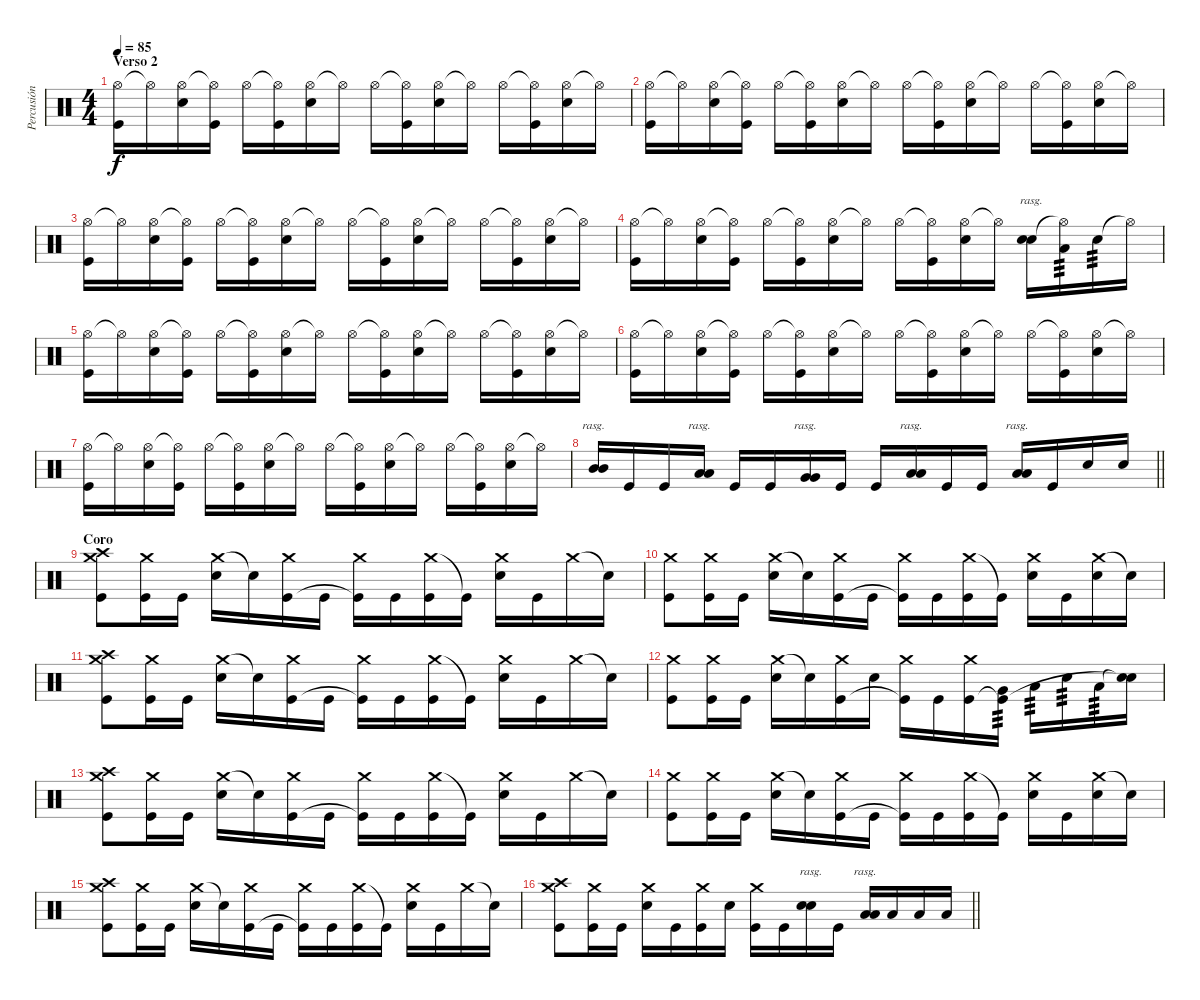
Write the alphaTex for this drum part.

\track ("Percusión" "Percusión") {instrument percussion}
\staff {score}
\articulation defaults
\ts (4 4)
\section ("" "Verso 2")
\tempo 85
\clef neutral
\ks c
("Hi-Hat (open)" "Kick (hit)").16{dy f} "Hi-Hat (open)"{t}.16 ("Hi-Hat (open)" "Electric Snare (hit)").16 ("Hi-Hat (open)"{t} "Kick (hit)").16 "Hi-Hat (open)".16 ("Hi-Hat (open)"{t} "Kick (hit)").16 ("Hi-Hat (open)" "Electric Snare (hit)").16 "Hi-Hat (open)"{t}.16 "Hi-Hat (open)".16 ("Hi-Hat (open)"{t} "Kick (hit)").16 ("Hi-Hat (open)" "Electric Snare (hit)").16 "Hi-Hat (open)"{t}.16 "Hi-Hat (open)".16 ("Hi-Hat (open)"{t} "Kick (hit)").16 ("Hi-Hat (open)" "Electric Snare (hit)").16 "Hi-Hat (open)"{t}.16 |
("Hi-Hat (open)" "Kick (hit)").16 "Hi-Hat (open)"{t}.16 ("Hi-Hat (open)" "Electric Snare (hit)").16 ("Hi-Hat (open)"{t} "Kick (hit)").16 "Hi-Hat (open)".16 ("Hi-Hat (open)"{t} "Kick (hit)").16 ("Hi-Hat (open)" "Electric Snare (hit)").16 "Hi-Hat (open)"{t}.16 "Hi-Hat (open)".16 ("Hi-Hat (open)"{t} "Kick (hit)").16 ("Hi-Hat (open)" "Electric Snare (hit)").16 "Hi-Hat (open)"{t}.16 "Hi-Hat (open)".16 ("Hi-Hat (open)"{t} "Kick (hit)").16 ("Hi-Hat (open)" "Electric Snare (hit)").16 "Hi-Hat (open)"{t}.16 |
("Hi-Hat (open)" "Kick (hit)").16 "Hi-Hat (open)"{t}.16 ("Hi-Hat (open)" "Electric Snare (hit)").16 ("Hi-Hat (open)"{t} "Kick (hit)").16 "Hi-Hat (open)".16 ("Hi-Hat (open)"{t} "Kick (hit)").16 ("Hi-Hat (open)" "Electric Snare (hit)").16 "Hi-Hat (open)"{t}.16 "Hi-Hat (open)".16 ("Hi-Hat (open)"{t} "Kick (hit)").16 ("Hi-Hat (open)" "Electric Snare (hit)").16 "Hi-Hat (open)"{t}.16 "Hi-Hat (open)".16 ("Hi-Hat (open)"{t} "Kick (hit)").16 ("Hi-Hat (open)" "Electric Snare (hit)").16 "Hi-Hat (open)"{t}.16 |
("Hi-Hat (open)" "Kick (hit)").16 "Hi-Hat (open)"{t}.16 ("Hi-Hat (open)" "Electric Snare (hit)").16 ("Hi-Hat (open)"{t} "Kick (hit)").16 "Hi-Hat (open)".16 ("Hi-Hat (open)"{t} "Kick (hit)").16 ("Hi-Hat (open)" "Electric Snare (hit)").16 "Hi-Hat (open)"{t}.16 "Hi-Hat (open)".16 ("Hi-Hat (open)"{t} "Kick (hit)").16 ("Hi-Hat (open)" "Electric Snare (hit)").16 "Hi-Hat (open)"{t}.16 ("Electric Snare (hit)" "Electric Snare (hit)").16{bd 120 rasg ii} ("Hi-Hat (open)"{t} "Low Floor Tom (hit)").16{tp 3} "Electric Snare (hit)".16{tp 3} "Hi-Hat (open)"{t}.16 |
("Hi-Hat (open)" "Kick (hit)").16 "Hi-Hat (open)"{t}.16 ("Hi-Hat (open)" "Electric Snare (hit)").16 ("Hi-Hat (open)"{t} "Kick (hit)").16 "Hi-Hat (open)".16 ("Hi-Hat (open)"{t} "Kick (hit)").16 ("Hi-Hat (open)" "Electric Snare (hit)").16 "Hi-Hat (open)"{t}.16 "Hi-Hat (open)".16 ("Hi-Hat (open)"{t} "Kick (hit)").16 ("Hi-Hat (open)" "Electric Snare (hit)").16 "Hi-Hat (open)"{t}.16 "Hi-Hat (open)".16 ("Hi-Hat (open)"{t} "Kick (hit)").16 ("Hi-Hat (open)" "Electric Snare (hit)").16 "Hi-Hat (open)"{t}.16 |
("Hi-Hat (open)" "Kick (hit)").16 "Hi-Hat (open)"{t}.16 ("Hi-Hat (open)" "Electric Snare (hit)").16 ("Hi-Hat (open)"{t} "Kick (hit)").16 "Hi-Hat (open)".16 ("Hi-Hat (open)"{t} "Kick (hit)").16 ("Hi-Hat (open)" "Electric Snare (hit)").16 "Hi-Hat (open)"{t}.16 "Hi-Hat (open)".16 ("Hi-Hat (open)"{t} "Kick (hit)").16 ("Hi-Hat (open)" "Electric Snare (hit)").16 "Hi-Hat (open)"{t}.16 "Hi-Hat (open)".16 ("Hi-Hat (open)"{t} "Kick (hit)").16 ("Hi-Hat (open)" "Electric Snare (hit)").16 "Hi-Hat (open)"{t}.16 |
("Hi-Hat (open)" "Kick (hit)").16 "Hi-Hat (open)"{t}.16 ("Hi-Hat (open)" "Electric Snare (hit)").16 ("Hi-Hat (open)"{t} "Kick (hit)").16 "Hi-Hat (open)".16 ("Hi-Hat (open)"{t} "Kick (hit)").16 ("Hi-Hat (open)" "Electric Snare (hit)").16 "Hi-Hat (open)"{t}.16 "Hi-Hat (open)".16 ("Hi-Hat (open)"{t} "Kick (hit)").16 ("Hi-Hat (open)" "Electric Snare (hit)").16 "Hi-Hat (open)"{t}.16 "Hi-Hat (open)".16 ("Hi-Hat (open)"{t} "Kick (hit)").16 ("Hi-Hat (open)" "Electric Snare (hit)").16 "Hi-Hat (open)"{t}.16 |
\barLineRight lightlight
("Mid Tom (hit)" "Mid Tom (hit)").16{bd 240 rasg ii} "Kick (hit)".16 "Kick (hit)".16 ("Low Tom (hit)" "Low Tom (hit)").16{bd 120 rasg ii} "Kick (hit)".16 "Kick (hit)".16 ("Very Low Tom (hit)" "Very Low Tom (hit)").16{bd 120 rasg ii} "Kick (hit)".16 "Kick (hit)".16 ("Low Floor Tom (hit)" "Low Floor Tom (hit)").16{bd 120 rasg ii} "Kick (hit)".16 "Kick (hit)".16 ("Low Floor Tom (hit)" "Low Floor Tom (hit)").16{bd 120 rasg ii} "Kick (hit)".16 "Electric Snare (hit)".16 "Electric Snare (hit)".16 |
\section ("" "Coro")
("Crash medium (hit)" "Crash high (hit)" "Kick (hit)").8 ("Crash medium (hit)" "Kick (hit)").16 "Kick (hit)".16 ("Crash medium (hit)" "Electric Snare (hit)").16 "Snare (hit)"{t}.16 ("Crash medium (hit)" "Kick (hit)").16 "Kick (hit)".16 ("Crash medium (hit)" "Kick (hit)"{t}).16 "Kick (hit)".16 ("Crash medium (hit)" "Kick (hit)").16 "Kick (hit)"{t}.16 ("Crash medium (hit)" "Electric Snare (hit)").16 "Kick (hit)".16 "Crash medium (hit)".16 "Snare (hit)"{t}.16 |
("Crash medium (hit)" "Kick (hit)").8 ("Crash medium (hit)" "Kick (hit)").16 "Kick (hit)".16 ("Crash medium (hit)" "Electric Snare (hit)").16 "Snare (hit)"{t}.16 ("Crash medium (hit)" "Kick (hit)").16 "Kick (hit)".16 ("Crash medium (hit)" "Kick (hit)"{t}).16 "Kick (hit)".16 ("Crash medium (hit)" "Kick (hit)").16 "Kick (hit)"{t}.16 ("Crash medium (hit)" "Electric Snare (hit)").16 "Kick (hit)".16 ("Crash medium (hit)" "Electric Snare (hit)").16 "Snare (hit)"{t}.16 |
("Crash medium (hit)" "Crash high (hit)" "Kick (hit)").8 ("Crash medium (hit)" "Kick (hit)").16 "Kick (hit)".16 ("Crash medium (hit)" "Electric Snare (hit)").16 "Snare (hit)"{t}.16 ("Crash medium (hit)" "Kick (hit)").16 "Kick (hit)".16 ("Crash medium (hit)" "Kick (hit)"{t}).16 "Kick (hit)".16 ("Crash medium (hit)" "Kick (hit)").16 "Kick (hit)"{t}.16 ("Crash medium (hit)" "Electric Snare (hit)").16 "Kick (hit)".16 "Crash medium (hit)".16 "Snare (hit)"{t}.16 |
("Crash medium (hit)" "Kick (hit)").8 ("Crash medium (hit)" "Kick (hit)").16 "Kick (hit)".16 ("Crash medium (hit)" "Electric Snare (hit)").16 "Snare (hit)"{t}.16 ("Crash medium (hit)" "Kick (hit)").16 "Electric Snare (hit)".16 ("Crash medium (hit)" "Kick (hit)"{t}).16 "Kick (hit)".16 ("Crash medium (hit)" "Kick (hit)").16 ("Very Low Tom (hit)" "Kick (hit)"{t}).16{tp 3} "Low Floor Tom (hit)".16{tp 3} "Electric Snare (hit)".16{tp 3} "Low Tom (hit)".16{tp 3} ("Snare (hit)"{t} "Electric Snare (hit)"{t}).16 |
("Crash medium (hit)" "Crash high (hit)" "Kick (hit)").8 ("Crash medium (hit)" "Kick (hit)").16 "Kick (hit)".16 ("Crash medium (hit)" "Electric Snare (hit)").16 "Snare (hit)"{t}.16 ("Crash medium (hit)" "Kick (hit)").16 "Kick (hit)".16 ("Crash medium (hit)" "Kick (hit)"{t}).16 "Kick (hit)".16 ("Crash medium (hit)" "Kick (hit)").16 "Kick (hit)"{t}.16 ("Crash medium (hit)" "Electric Snare (hit)").16 "Kick (hit)".16 "Crash medium (hit)".16 "Snare (hit)"{t}.16 |
("Crash medium (hit)" "Kick (hit)").8 ("Crash medium (hit)" "Kick (hit)").16 "Kick (hit)".16 ("Crash medium (hit)" "Electric Snare (hit)").16 "Snare (hit)"{t}.16 ("Crash medium (hit)" "Kick (hit)").16 "Kick (hit)".16 ("Crash medium (hit)" "Kick (hit)"{t}).16 "Kick (hit)".16 ("Crash medium (hit)" "Kick (hit)").16 "Kick (hit)"{t}.16 ("Crash medium (hit)" "Electric Snare (hit)").16 "Kick (hit)".16 ("Crash medium (hit)" "Electric Snare (hit)").16 "Snare (hit)"{t}.16 |
("Crash medium (hit)" "Crash high (hit)" "Kick (hit)").8 ("Crash medium (hit)" "Kick (hit)").16 "Kick (hit)".16 ("Crash medium (hit)" "Electric Snare (hit)").16 "Snare (hit)"{t}.16 ("Crash medium (hit)" "Kick (hit)").16 "Kick (hit)".16 ("Crash medium (hit)" "Kick (hit)"{t}).16 "Kick (hit)".16 ("Crash medium (hit)" "Kick (hit)").16 "Kick (hit)"{t}.16 ("Crash medium (hit)" "Electric Snare (hit)").16 "Kick (hit)".16 "Crash medium (hit)".16 "Snare (hit)"{t}.16 |
\barLineRight lightlight
("Crash medium (hit)" "Crash high (hit)" "Kick (hit)").8 ("Crash medium (hit)" "Kick (hit)").16 "Kick (hit)".16 ("Crash medium (hit)" "Electric Snare (hit)").16 "Kick (hit)".16 ("Crash medium (hit)" "Kick (hit)").16 "Electric Snare (hit)".16 ("Crash medium (hit)" "Kick (hit)").16 "Kick (hit)".16 ("Electric Snare (hit)" "Electric Snare (hit)").16{bd 240 rasg ii} "Kick (hit)".16 ("Low Tom (hit)" "Low Tom (hit)").16{bd 240 rasg ii} "Low Floor Tom (hit)".16 "Low Floor Tom (hit)".16 "Low Floor Tom (hit)".16
